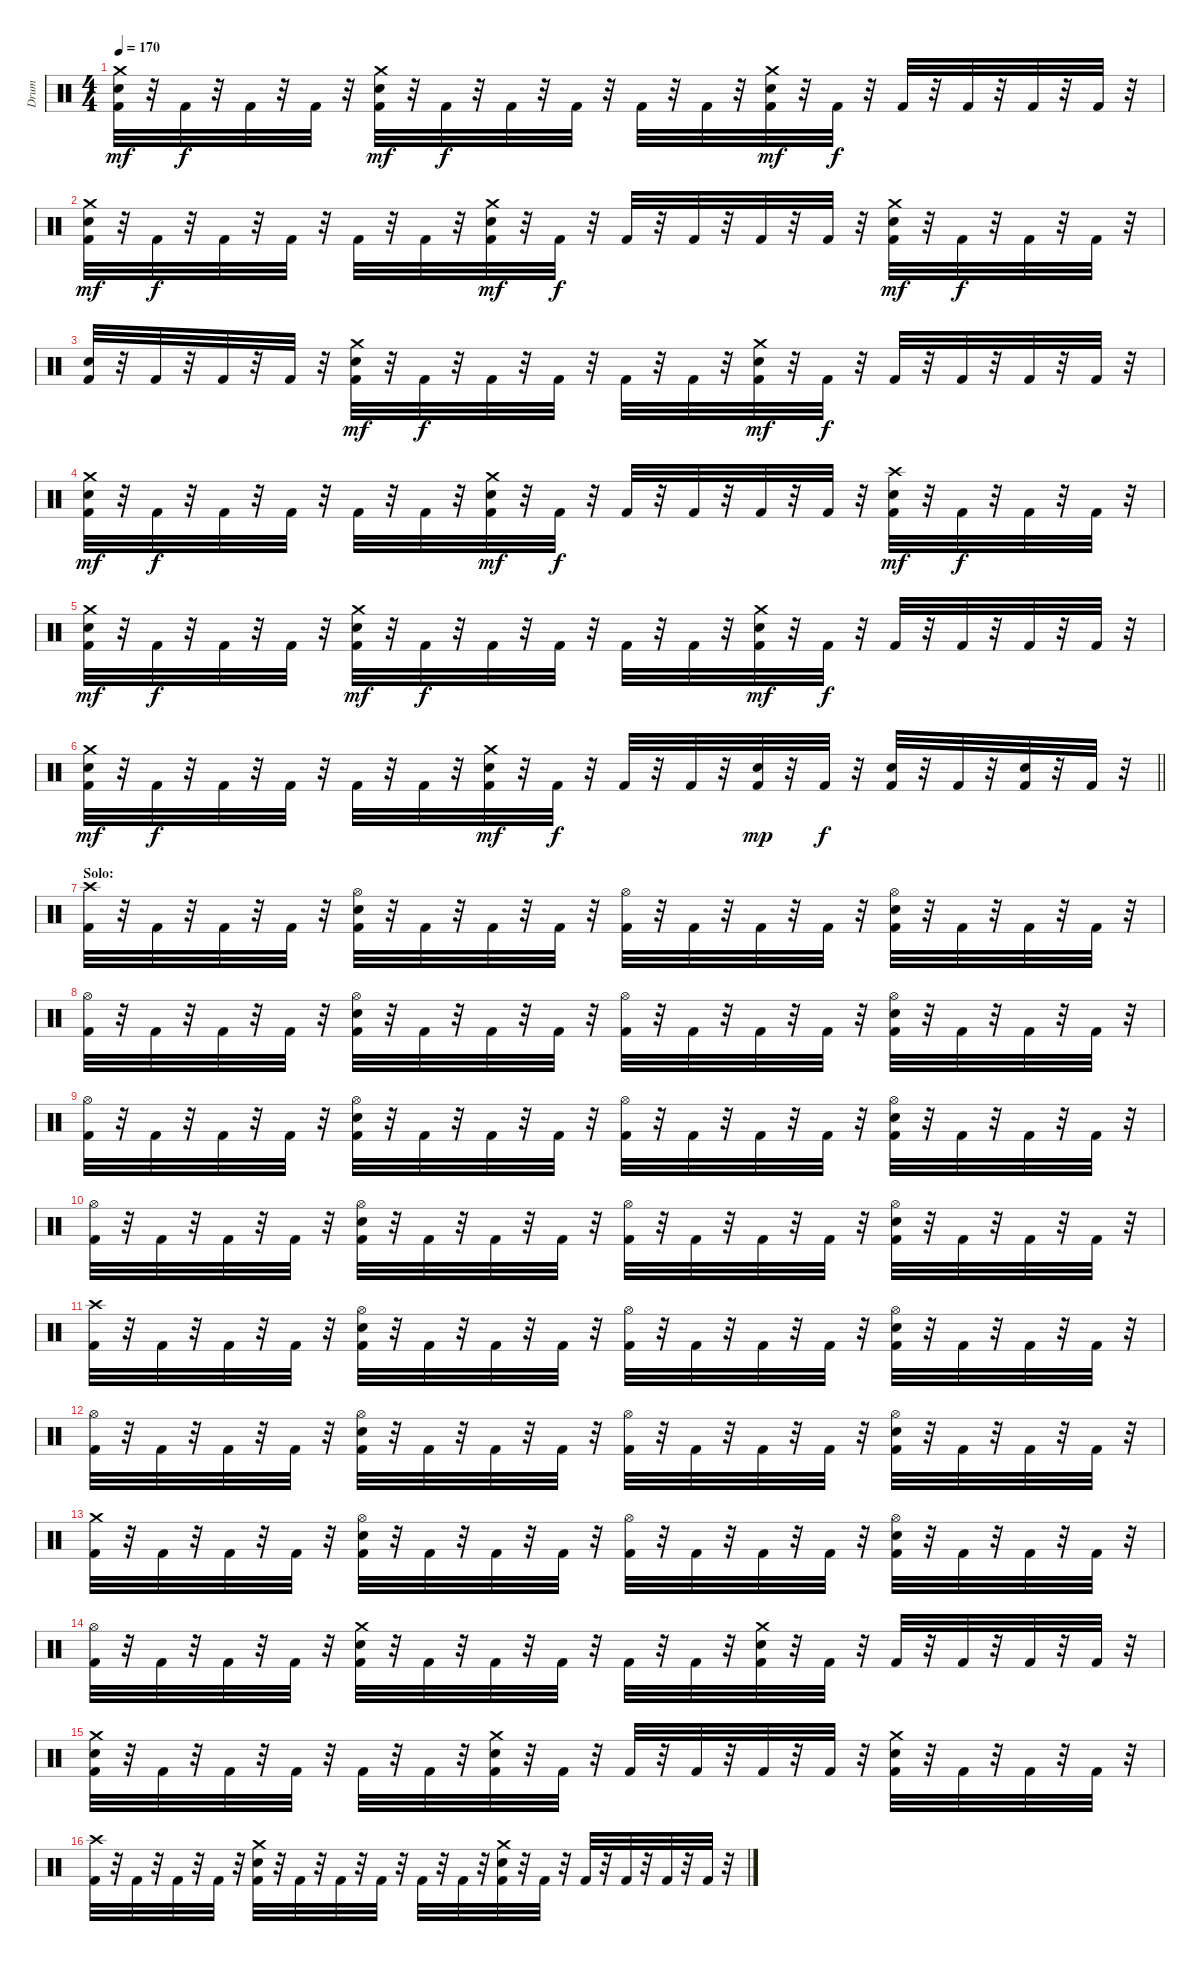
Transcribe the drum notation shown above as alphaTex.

\track ("Drum" "Drum") {instrument percussion}
\staff {score}
\articulation defaults
\ts (4 4)
\tempo 170
\clef neutral
\ks c
("Crash medium (hit)" "Snare (hit) 2" "Kick (hit) 2").32{dy mf} r.32 "Kick (hit) 2".32{dy f} r.32 "Kick (hit) 2".32 r.32 "Kick (hit) 2".32 r.32 ("Crash medium (hit)" "Snare (hit) 2" "Kick (hit) 2").32{dy mf} r.32 "Kick (hit) 2".32{dy f} r.32 "Kick (hit) 2".32 r.32 "Kick (hit) 2".32 r.32 "Kick (hit) 2".32 r.32 "Kick (hit) 2".32 r.32 ("Snare (hit) 2" "Crash medium (hit)" "Kick (hit) 2").32{dy mf} r.32 "Kick (hit) 2".32{dy f} r.32 "Kick (hit) 2".32 r.32 "Kick (hit) 2".32 r.32 "Kick (hit) 2".32 r.32 "Kick (hit) 2".32 r.32 |
("Crash medium (hit)" "Snare (hit) 2" "Kick (hit) 2").32{dy mf} r.32 "Kick (hit) 2".32{dy f} r.32 "Kick (hit) 2".32 r.32 "Kick (hit) 2".32 r.32 "Kick (hit) 2".32 r.32 "Kick (hit) 2".32 r.32 ("Crash medium (hit)" "Snare (hit) 2" "Kick (hit) 2").32{dy mf} r.32 "Kick (hit) 2".32{dy f} r.32 "Kick (hit) 2".32 r.32 "Kick (hit) 2".32 r.32 "Kick (hit) 2".32 r.32 "Kick (hit) 2".32 r.32 ("Crash medium (hit)" "Snare (hit) 2" "Kick (hit) 2").32{dy mf} r.32 "Kick (hit) 2".32{dy f} r.32 "Kick (hit) 2".32 r.32 "Kick (hit) 2".32 r.32 |
("Snare (hit) 2" "Kick (hit) 2").32 r.32 "Kick (hit) 2".32 r.32 "Kick (hit) 2".32 r.32 "Kick (hit) 2".32 r.32 ("Snare (hit) 2" "Crash medium (hit)" "Kick (hit) 2").32{dy mf} r.32 "Kick (hit) 2".32{dy f} r.32 "Kick (hit) 2".32 r.32 "Kick (hit) 2".32 r.32 "Kick (hit) 2".32 r.32 "Kick (hit) 2".32 r.32 ("Crash medium (hit)" "Snare (hit) 2" "Kick (hit) 2").32{dy mf} r.32 "Kick (hit) 2".32{dy f} r.32 "Kick (hit) 2".32 r.32 "Kick (hit) 2".32 r.32 "Kick (hit) 2".32 r.32 "Kick (hit) 2".32 r.32 |
("Snare (hit) 2" "Crash medium (hit)" "Kick (hit) 2").32{dy mf} r.32 "Kick (hit) 2".32{dy f} r.32 "Kick (hit) 2".32 r.32 "Kick (hit) 2".32 r.32 "Kick (hit) 2".32 r.32 "Kick (hit) 2".32 r.32 ("Snare (hit) 2" "Crash medium (hit)" "Kick (hit) 2").32{dy mf} r.32 "Kick (hit) 2".32{dy f} r.32 "Kick (hit) 2".32 r.32 "Kick (hit) 2".32 r.32 "Kick (hit) 2".32 r.32 "Kick (hit) 2".32 r.32 ("Crash high (hit)" "Snare (hit) 2" "Kick (hit) 2").32{dy mf} r.32 "Kick (hit) 2".32{dy f} r.32 "Kick (hit) 2".32 r.32 "Kick (hit) 2".32 r.32 |
("Crash medium (hit)" "Snare (hit) 2" "Kick (hit) 2").32{dy mf} r.32 "Kick (hit) 2".32{dy f} r.32 "Kick (hit) 2".32 r.32 "Kick (hit) 2".32 r.32 ("Snare (hit) 2" "Crash medium (hit)" "Kick (hit) 2").32{dy mf} r.32 "Kick (hit) 2".32{dy f} r.32 "Kick (hit) 2".32 r.32 "Kick (hit) 2".32 r.32 "Kick (hit) 2".32 r.32 "Kick (hit) 2".32 r.32 ("Crash medium (hit)" "Snare (hit) 2" "Kick (hit) 2").32{dy mf} r.32 "Kick (hit) 2".32{dy f} r.32 "Kick (hit) 2".32 r.32 "Kick (hit) 2".32 r.32 "Kick (hit) 2".32 r.32 "Kick (hit) 2".32 r.32 |
\barLineRight lightlight
("Snare (hit) 2" "Crash medium (hit)" "Kick (hit) 2").32{dy mf} r.32 "Kick (hit) 2".32{dy f} r.32 "Kick (hit) 2".32 r.32 "Kick (hit) 2".32 r.32 "Kick (hit) 2".32 r.32 "Kick (hit) 2".32 r.32 ("Snare (hit) 2" "Crash medium (hit)" "Kick (hit) 2").32{dy mf} r.32 "Kick (hit) 2".32{dy f} r.32 "Kick (hit) 2".32 r.32 "Kick (hit) 2".32 r.32 ("Snare (hit) 2" "Kick (hit) 2").32{dy mp} r.32 "Kick (hit) 2".32{dy f} r.32 ("Snare (hit) 2" "Kick (hit) 2").32 r.32 "Kick (hit) 2".32 r.32 ("Snare (hit) 2" "Kick (hit) 2").32 r.32 "Kick (hit) 2".32 r.32 |
\section ("" "Solo:")
("Crash high (hit)" "Kick (hit) 2").32 r.32 "Kick (hit) 2".32 r.32 "Kick (hit) 2".32 r.32 "Kick (hit) 2".32 r.32 ("Hi-Hat (open)" "Snare (hit) 2" "Kick (hit) 2").32 r.32 "Kick (hit) 2".32 r.32 "Kick (hit) 2".32 r.32 "Kick (hit) 2".32 r.32 ("Hi-Hat (open)" "Kick (hit) 2").32 r.32 "Kick (hit) 2".32 r.32 "Kick (hit) 2".32 r.32 "Kick (hit) 2".32 r.32 ("Hi-Hat (open)" "Snare (hit) 2" "Kick (hit) 2").32 r.32 "Kick (hit) 2".32 r.32 "Kick (hit) 2".32 r.32 "Kick (hit) 2".32 r.32 |
("Hi-Hat (open)" "Kick (hit) 2").32 r.32 "Kick (hit) 2".32 r.32 "Kick (hit) 2".32 r.32 "Kick (hit) 2".32 r.32 ("Snare (hit) 2" "Hi-Hat (open)" "Kick (hit) 2").32 r.32 "Kick (hit) 2".32 r.32 "Kick (hit) 2".32 r.32 "Kick (hit) 2".32 r.32 ("Hi-Hat (open)" "Kick (hit) 2").32 r.32 "Kick (hit) 2".32 r.32 "Kick (hit) 2".32 r.32 "Kick (hit) 2".32 r.32 ("Snare (hit) 2" "Hi-Hat (open)" "Kick (hit) 2").32 r.32 "Kick (hit) 2".32 r.32 "Kick (hit) 2".32 r.32 "Kick (hit) 2".32 r.32 |
("Hi-Hat (open)" "Kick (hit) 2").32 r.32 "Kick (hit) 2".32 r.32 "Kick (hit) 2".32 r.32 "Kick (hit) 2".32 r.32 ("Snare (hit) 2" "Hi-Hat (open)" "Kick (hit) 2").32 r.32 "Kick (hit) 2".32 r.32 "Kick (hit) 2".32 r.32 "Kick (hit) 2".32 r.32 ("Hi-Hat (open)" "Kick (hit) 2").32 r.32 "Kick (hit) 2".32 r.32 "Kick (hit) 2".32 r.32 "Kick (hit) 2".32 r.32 ("Snare (hit) 2" "Hi-Hat (open)" "Kick (hit) 2").32 r.32 "Kick (hit) 2".32 r.32 "Kick (hit) 2".32 r.32 "Kick (hit) 2".32 r.32 |
("Hi-Hat (open)" "Kick (hit) 2").32 r.32 "Kick (hit) 2".32 r.32 "Kick (hit) 2".32 r.32 "Kick (hit) 2".32 r.32 ("Snare (hit) 2" "Hi-Hat (open)" "Kick (hit) 2").32 r.32 "Kick (hit) 2".32 r.32 "Kick (hit) 2".32 r.32 "Kick (hit) 2".32 r.32 ("Hi-Hat (open)" "Kick (hit) 2").32 r.32 "Kick (hit) 2".32 r.32 "Kick (hit) 2".32 r.32 "Kick (hit) 2".32 r.32 ("Snare (hit) 2" "Hi-Hat (open)" "Kick (hit) 2").32 r.32 "Kick (hit) 2".32 r.32 "Kick (hit) 2".32 r.32 "Kick (hit) 2".32 r.32 |
("Crash high (hit)" "Kick (hit) 2").32 r.32 "Kick (hit) 2".32 r.32 "Kick (hit) 2".32 r.32 "Kick (hit) 2".32 r.32 ("Snare (hit) 2" "Hi-Hat (open)" "Kick (hit) 2").32 r.32 "Kick (hit) 2".32 r.32 "Kick (hit) 2".32 r.32 "Kick (hit) 2".32 r.32 ("Hi-Hat (open)" "Kick (hit) 2").32 r.32 "Kick (hit) 2".32 r.32 "Kick (hit) 2".32 r.32 "Kick (hit) 2".32 r.32 ("Snare (hit) 2" "Hi-Hat (open)" "Kick (hit) 2").32 r.32 "Kick (hit) 2".32 r.32 "Kick (hit) 2".32 r.32 "Kick (hit) 2".32 r.32 |
("Hi-Hat (open)" "Kick (hit) 2").32 r.32 "Kick (hit) 2".32 r.32 "Kick (hit) 2".32 r.32 "Kick (hit) 2".32 r.32 ("Hi-Hat (open)" "Snare (hit) 2" "Kick (hit) 2").32 r.32 "Kick (hit) 2".32 r.32 "Kick (hit) 2".32 r.32 "Kick (hit) 2".32 r.32 ("Hi-Hat (open)" "Kick (hit) 2").32 r.32 "Kick (hit) 2".32 r.32 "Kick (hit) 2".32 r.32 "Kick (hit) 2".32 r.32 ("Hi-Hat (open)" "Snare (hit) 2" "Kick (hit) 2").32 r.32 "Kick (hit) 2".32 r.32 "Kick (hit) 2".32 r.32 "Kick (hit) 2".32 r.32 |
("Crash medium (hit)" "Kick (hit) 2").32 r.32 "Kick (hit) 2".32 r.32 "Kick (hit) 2".32 r.32 "Kick (hit) 2".32 r.32 ("Hi-Hat (open)" "Snare (hit) 2" "Kick (hit) 2").32 r.32 "Kick (hit) 2".32 r.32 "Kick (hit) 2".32 r.32 "Kick (hit) 2".32 r.32 ("Hi-Hat (open)" "Kick (hit) 2").32 r.32 "Kick (hit) 2".32 r.32 "Kick (hit) 2".32 r.32 "Kick (hit) 2".32 r.32 ("Hi-Hat (open)" "Snare (hit) 2" "Kick (hit) 2").32 r.32 "Kick (hit) 2".32 r.32 "Kick (hit) 2".32 r.32 "Kick (hit) 2".32 r.32 |
("Hi-Hat (open)" "Kick (hit) 2").32 r.32 "Kick (hit) 2".32 r.32 "Kick (hit) 2".32 r.32 "Kick (hit) 2".32 r.32 ("Crash medium (hit)" "Snare (hit) 2" "Kick (hit) 2").32 r.32 "Kick (hit) 2".32 r.32 "Kick (hit) 2".32 r.32 "Kick (hit) 2".32 r.32 "Kick (hit) 2".32 r.32 "Kick (hit) 2".32 r.32 ("Crash medium (hit)" "Snare (hit) 2" "Kick (hit) 2").32 r.32 "Kick (hit) 2".32 r.32 "Kick (hit) 2".32 r.32 "Kick (hit) 2".32 r.32 "Kick (hit) 2".32 r.32 "Kick (hit) 2".32 r.32 |
("Crash medium (hit)" "Snare (hit) 2" "Kick (hit) 2").32 r.32 "Kick (hit) 2".32 r.32 "Kick (hit) 2".32 r.32 "Kick (hit) 2".32 r.32 "Kick (hit) 2".32 r.32 "Kick (hit) 2".32 r.32 ("Crash medium (hit)" "Snare (hit) 2" "Kick (hit) 2").32 r.32 "Kick (hit) 2".32 r.32 "Kick (hit) 2".32 r.32 "Kick (hit) 2".32 r.32 "Kick (hit) 2".32 r.32 "Kick (hit) 2".32 r.32 ("Crash medium (hit)" "Snare (hit) 2" "Kick (hit) 2").32 r.32 "Kick (hit) 2".32 r.32 "Kick (hit) 2".32 r.32 "Kick (hit) 2".32 r.32 |
("Crash high (hit)" "Kick (hit) 2").32 r.32 "Kick (hit) 2".32 r.32 "Kick (hit) 2".32 r.32 "Kick (hit) 2".32 r.32 ("Crash medium (hit)" "Snare (hit) 2" "Kick (hit) 2").32 r.32 "Kick (hit) 2".32 r.32 "Kick (hit) 2".32 r.32 "Kick (hit) 2".32 r.32 "Kick (hit) 2".32 r.32 "Kick (hit) 2".32 r.32 ("Crash medium (hit)" "Snare (hit) 2" "Kick (hit) 2").32 r.32 "Kick (hit) 2".32 r.32 "Kick (hit) 2".32 r.32 "Kick (hit) 2".32 r.32 "Kick (hit) 2".32 r.32 "Kick (hit) 2".32 r.32
